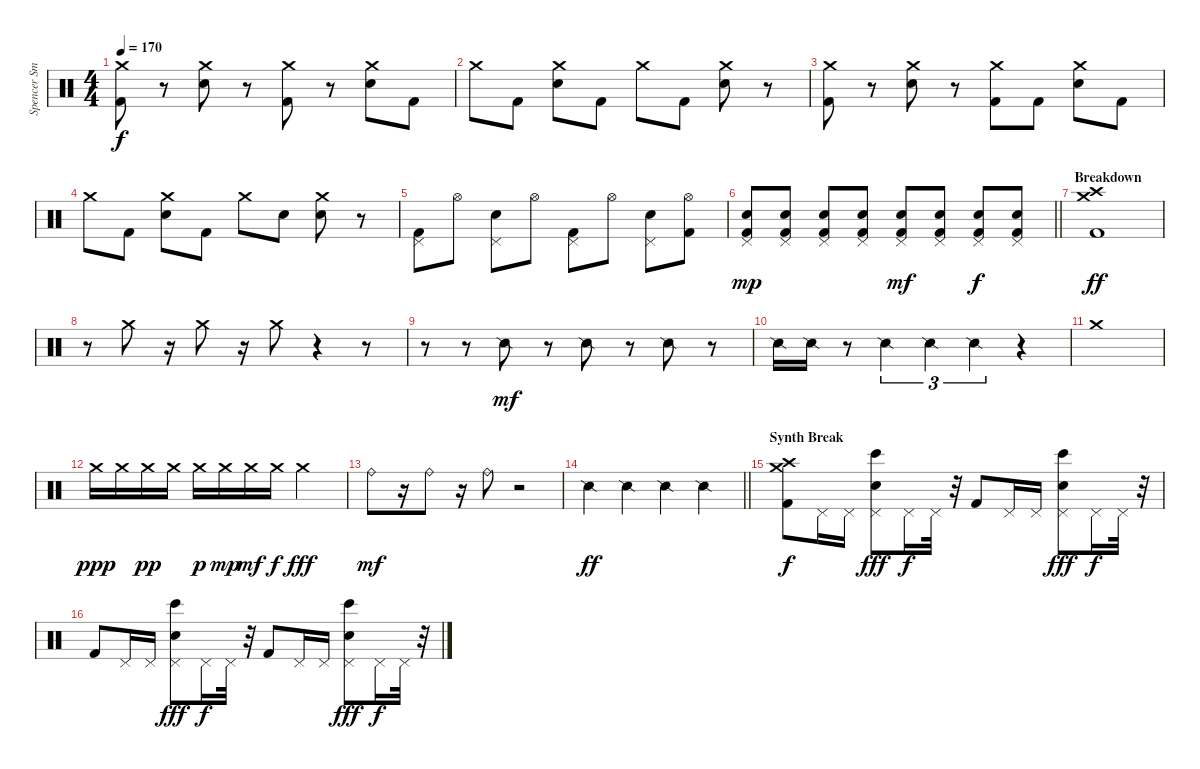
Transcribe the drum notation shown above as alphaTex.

\track ("Spencer Smith (Drums)" "Spencer Sm") {instrument percussion}
\staff {score}
\articulation defaults
\ts (4 4)
\tempo 170
\clef neutral
\ks c
("Crash medium (hit)" "Kick (hit) 2").8{dy f} r.8 ("Crash medium (hit)" "Electric Snare (hit)").8 r.8 ("Crash medium (hit)" "Kick (hit) 2").8 r.8 ("Crash medium (hit)" "Electric Snare (hit)").8 "Kick (hit) 2".8 |
"Crash medium (hit)".8 "Kick (hit) 2".8 ("Crash medium (hit)" "Electric Snare (hit)").8 "Kick (hit) 2".8 "Crash medium (hit)".8 "Kick (hit) 2".8 ("Crash medium (hit)" "Electric Snare (hit)").8 r.8 |
("Crash medium (hit)" "Kick (hit) 2").8 r.8 ("Crash medium (hit)" "Electric Snare (hit)").8 r.8 ("Crash medium (hit)" "Kick (hit) 2").8 "Kick (hit) 2".8 ("Crash medium (hit)" "Electric Snare (hit)").8 "Kick (hit) 2".8 |
"Crash medium (hit)".8 "Kick (hit) 2".8 ("Crash medium (hit)" "Electric Snare (hit)").8 "Kick (hit) 2".8 "Crash medium (hit)".8 "Electric Snare (hit)".8 ("Crash medium (hit)" "Electric Snare (hit)").8 r.8 |
("Pedal Hi-Hat (hit)" "Kick (hit) 2").8 "Hi-Hat (open)".8 ("Pedal Hi-Hat (hit)" "Electric Snare (hit)").8 "Hi-Hat (open)".8 ("Pedal Hi-Hat (hit)" "Kick (hit) 2").8 "Hi-Hat (open)".8 ("Pedal Hi-Hat (hit)" "Electric Snare (hit)").8 ("Hi-Hat (open)" "Kick (hit) 2").8 |
\barLineRight lightlight
("Pedal Hi-Hat (hit)" "Electric Snare (hit)" "Kick (hit) 2").8{dy mp} ("Pedal Hi-Hat (hit)" "Electric Snare (hit)" "Kick (hit) 2").8 ("Pedal Hi-Hat (hit)" "Electric Snare (hit)" "Kick (hit) 2").8 ("Pedal Hi-Hat (hit)" "Electric Snare (hit)" "Kick (hit) 2").8 ("Pedal Hi-Hat (hit)" "Electric Snare (hit)" "Kick (hit) 2").8{dy mf} ("Pedal Hi-Hat (hit)" "Electric Snare (hit)" "Kick (hit) 2").8 ("Pedal Hi-Hat (hit)" "Electric Snare (hit)" "Kick (hit) 2").8{dy f} ("Pedal Hi-Hat (hit)" "Electric Snare (hit)" "Kick (hit) 2").8 |
\section ("" "Breakdown")
("Crash high (hit)" "Crash medium (hit)" "Kick (hit) 2").1{dy ff} |
r.8 "Crash medium (hit)".8 r.16 "Crash medium (hit)".8 r.16 "Crash medium (hit)".8 r.4 r.8 |
r.8 r.8 "Snare (side stick) 2".8{dy mf} r.8 "Snare (side stick) 2".8 r.8 "Snare (side stick) 2".8 r.8 |
"Snare (side stick) 2".16 "Snare (side stick) 2".16 r.8 "Snare (side stick) 2".4{tu (3 2)} "Snare (side stick) 2".4{tu (3 2)} "Snare (side stick) 2".4{tu (3 2)} r.4 |
"Crash medium (hit)".1 |
"Crash medium (hit)".16{dy ppp} "Crash medium (hit)".16 "Crash medium (hit)".16{dy pp} "Crash medium (hit)".16 "Crash medium (hit)".16{dy p} "Crash medium (hit)".16{dy mp} "Crash medium (hit)".16{dy mf} "Crash medium (hit)".16{dy f} "Crash medium (hit)".2{dy fff} |
"Ride (bell)".8{dy mf} r.16 "Ride (bell)".8 r.16 "Ride (bell)".8 r.2 |
\barLineRight lightlight "Snare (side stick) 2".4{dy ff} "Snare (side stick) 2".4 "Snare (side stick) 2".4 "Snare (side stick) 2".4
|
\section ("" "Synth Break")
("Crash medium (hit)" "Crash high (hit)" "Kick (hit) 2").8{dy f} "Pedal Hi-Hat (hit)".16 "Pedal Hi-Hat (hit)".16 ("Pedal Hi-Hat (hit)" "Hand Clap (hit)" "Bongo High (hit)").8{dy fff} "Pedal Hi-Hat (hit)".16{dy f} "Pedal Hi-Hat (hit)".32 r.32 "Kick (hit) 2".8 "Pedal Hi-Hat (hit)".16 "Pedal Hi-Hat (hit)".16 ("Pedal Hi-Hat (hit)" "Hand Clap (hit)" "Bongo High (hit)").8{dy fff} "Pedal Hi-Hat (hit)".16{dy f} "Pedal Hi-Hat (hit)".32 r.32 |
"Kick (hit) 2".8 "Pedal Hi-Hat (hit)".16 "Pedal Hi-Hat (hit)".16 ("Pedal Hi-Hat (hit)" "Hand Clap (hit)" "Bongo High (hit)").8{dy fff} "Pedal Hi-Hat (hit)".16{dy f} "Pedal Hi-Hat (hit)".32 r.32 "Kick (hit) 2".8 "Pedal Hi-Hat (hit)".16 "Pedal Hi-Hat (hit)".16 ("Pedal Hi-Hat (hit)" "Hand Clap (hit)" "Bongo High (hit)").8{dy fff} "Pedal Hi-Hat (hit)".16{dy f} "Pedal Hi-Hat (hit)".32 r.32
